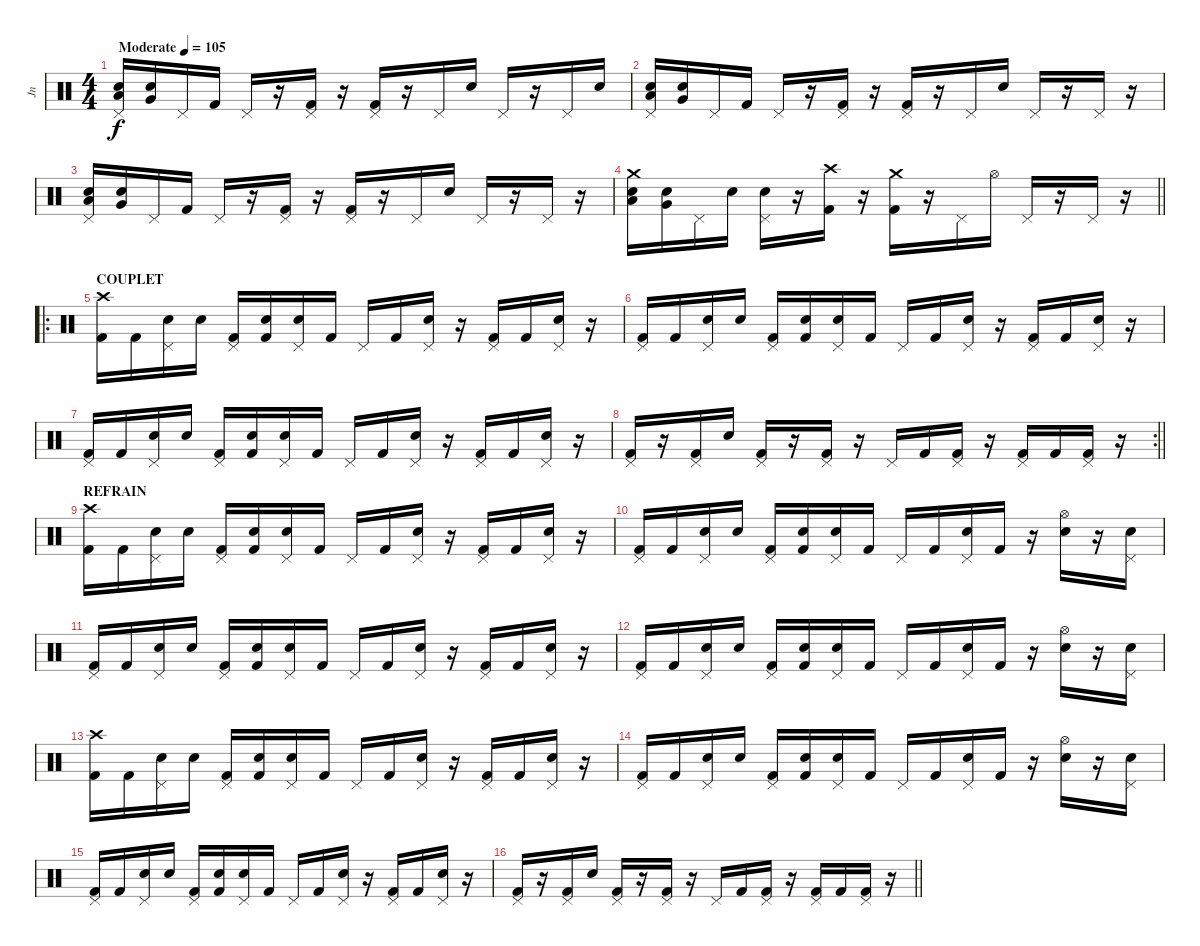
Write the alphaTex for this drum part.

\track ("Jn" "Jn") {instrument percussion}
\staff {score}
\articulation defaults
\ts (4 4)
\tempo (105 "Moderate")
\clef neutral
\ks c
("Pedal Hi-Hat (hit)" "Low Tom (hit)" "Electric Snare (hit)").16{dy f} ("Very Low Tom (hit)" "Electric Snare (hit)").16 "Pedal Hi-Hat (hit)".16 "Kick (hit) 2".16 "Pedal Hi-Hat (hit)".16 r.16 ("Pedal Hi-Hat (hit)" "Kick (hit) 2").16 r.16 ("Pedal Hi-Hat (hit)" "Kick (hit) 2").16 r.16 "Pedal Hi-Hat (hit)".16 "Electric Snare (hit)".16 "Pedal Hi-Hat (hit)".16 r.16 "Pedal Hi-Hat (hit)".16 "Electric Snare (hit)".16 |
("Pedal Hi-Hat (hit)" "Low Tom (hit)" "Electric Snare (hit)").16 ("Very Low Tom (hit)" "Electric Snare (hit)").16 "Pedal Hi-Hat (hit)".16 "Kick (hit) 2".16 "Pedal Hi-Hat (hit)".16 r.16 ("Pedal Hi-Hat (hit)" "Kick (hit) 2").16 r.16 ("Pedal Hi-Hat (hit)" "Kick (hit) 2").16 r.16 "Pedal Hi-Hat (hit)".16 "Electric Snare (hit)".16 "Pedal Hi-Hat (hit)".16 r.16 "Pedal Hi-Hat (hit)".16 r.16 |
("Pedal Hi-Hat (hit)" "Low Tom (hit)" "Electric Snare (hit)").16 ("Very Low Tom (hit)" "Electric Snare (hit)").16 "Pedal Hi-Hat (hit)".16 "Kick (hit) 2".16 "Pedal Hi-Hat (hit)".16 r.16 ("Pedal Hi-Hat (hit)" "Kick (hit) 2").16 r.16 ("Pedal Hi-Hat (hit)" "Kick (hit) 2").16 r.16 "Pedal Hi-Hat (hit)".16 "Electric Snare (hit)".16 "Pedal Hi-Hat (hit)".16 r.16 "Pedal Hi-Hat (hit)".16 r.16 |
\barLineRight lightlight
("Crash medium (hit)" "Low Tom (hit)" "Electric Snare (hit)").16 ("Very Low Tom (hit)" "Electric Snare (hit)").16 "Pedal Hi-Hat (hit)".16 "Electric Snare (hit)".16 ("Pedal Hi-Hat (hit)" "Electric Snare (hit)").16 r.16 ("Crash high (hit)" "Kick (hit) 2").16 r.16 ("Crash medium (hit)" "Kick (hit) 2").16 r.16 "Pedal Hi-Hat (hit)".16 "Hi-Hat (open)".16 "Pedal Hi-Hat (hit)".16 r.16 "Pedal Hi-Hat (hit)".16 r.16 |
\ro
\section ("" "COUPLET")
("Crash high (hit)" "Kick (hit) 2").16 "Kick (hit) 2".16 ("Pedal Hi-Hat (hit)" "Electric Snare (hit)").16 "Snare (hit)".16 ("Pedal Hi-Hat (hit)" "Kick (hit) 2").16 ("Snare (hit)" "Kick (hit) 2").16 ("Pedal Hi-Hat (hit)" "Electric Snare (hit)").16 "Kick (hit) 2".16 "Pedal Hi-Hat (hit)".16 "Kick (hit) 2".16 ("Pedal Hi-Hat (hit)" "Electric Snare (hit)").16 r.16 ("Pedal Hi-Hat (hit)" "Kick (hit) 2").16 "Kick (hit) 2".16 ("Pedal Hi-Hat (hit)" "Electric Snare (hit)").16 r.16 |
("Pedal Hi-Hat (hit)" "Kick (hit) 2").16 "Kick (hit) 2".16 ("Pedal Hi-Hat (hit)" "Electric Snare (hit)").16 "Snare (hit)".16 ("Pedal Hi-Hat (hit)" "Kick (hit) 2").16 ("Snare (hit)" "Kick (hit) 2").16 ("Pedal Hi-Hat (hit)" "Electric Snare (hit)").16 "Kick (hit) 2".16 "Pedal Hi-Hat (hit)".16 "Kick (hit) 2".16 ("Pedal Hi-Hat (hit)" "Electric Snare (hit)").16 r.16 ("Pedal Hi-Hat (hit)" "Kick (hit) 2").16 "Kick (hit) 2".16 ("Pedal Hi-Hat (hit)" "Electric Snare (hit)").16 r.16 |
("Pedal Hi-Hat (hit)" "Kick (hit) 2").16 "Kick (hit) 2".16 ("Pedal Hi-Hat (hit)" "Electric Snare (hit)").16 "Snare (hit)".16 ("Pedal Hi-Hat (hit)" "Kick (hit) 2").16 ("Snare (hit)" "Kick (hit) 2").16 ("Pedal Hi-Hat (hit)" "Electric Snare (hit)").16 "Kick (hit) 2".16 "Pedal Hi-Hat (hit)".16 "Kick (hit) 2".16 ("Pedal Hi-Hat (hit)" "Electric Snare (hit)").16 r.16 ("Pedal Hi-Hat (hit)" "Kick (hit) 2").16 "Kick (hit) 2".16 ("Pedal Hi-Hat (hit)" "Electric Snare (hit)").16 r.16 |
\rc 2
\barLineRight lightlight
("Pedal Hi-Hat (hit)" "Kick (hit) 2").16 r.16 ("Pedal Hi-Hat (hit)" "Kick (hit) 2").16 "Snare (hit)".16 ("Pedal Hi-Hat (hit)" "Kick (hit) 2").16 r.16 ("Pedal Hi-Hat (hit)" "Kick (hit) 2").16 r.16 "Pedal Hi-Hat (hit)".16 "Kick (hit) 2".16 ("Pedal Hi-Hat (hit)" "Kick (hit) 2").16 r.16 ("Pedal Hi-Hat (hit)" "Kick (hit) 2").16 "Kick (hit) 2".16 ("Pedal Hi-Hat (hit)" "Kick (hit) 2").16 r.16 |
\section ("" "REFRAIN")
("Crash high (hit)" "Kick (hit) 2").16 "Kick (hit) 2".16 ("Pedal Hi-Hat (hit)" "Electric Snare (hit)").16 "Snare (hit)".16 ("Pedal Hi-Hat (hit)" "Kick (hit) 2").16 ("Snare (hit)" "Kick (hit) 2").16 ("Pedal Hi-Hat (hit)" "Electric Snare (hit)").16 "Kick (hit) 2".16 "Pedal Hi-Hat (hit)".16 "Kick (hit) 2".16 ("Pedal Hi-Hat (hit)" "Electric Snare (hit)").16 r.16 ("Pedal Hi-Hat (hit)" "Kick (hit) 2").16 "Kick (hit) 2".16 ("Pedal Hi-Hat (hit)" "Electric Snare (hit)").16 r.16 |
("Pedal Hi-Hat (hit)" "Kick (hit) 2").16 "Kick (hit) 2".16 ("Pedal Hi-Hat (hit)" "Electric Snare (hit)").16 "Snare (hit)".16 ("Pedal Hi-Hat (hit)" "Kick (hit) 2").16 ("Snare (hit)" "Kick (hit) 2").16 ("Pedal Hi-Hat (hit)" "Electric Snare (hit)").16 "Kick (hit) 2".16 "Pedal Hi-Hat (hit)".16 "Kick (hit) 2".16 ("Pedal Hi-Hat (hit)" "Electric Snare (hit)").16 "Kick (hit) 2".16 r.16 ("Hi-Hat (open)" "Electric Snare (hit)").16 r.16 ("Pedal Hi-Hat (hit)" "Electric Snare (hit)").16 |
("Pedal Hi-Hat (hit)" "Kick (hit) 2").16 "Kick (hit) 2".16 ("Pedal Hi-Hat (hit)" "Electric Snare (hit)").16 "Snare (hit)".16 ("Pedal Hi-Hat (hit)" "Kick (hit) 2").16 ("Snare (hit)" "Kick (hit) 2").16 ("Pedal Hi-Hat (hit)" "Electric Snare (hit)").16 "Kick (hit) 2".16 "Pedal Hi-Hat (hit)".16 "Kick (hit) 2".16 ("Pedal Hi-Hat (hit)" "Electric Snare (hit)").16 r.16 ("Pedal Hi-Hat (hit)" "Kick (hit) 2").16 "Kick (hit) 2".16 ("Pedal Hi-Hat (hit)" "Electric Snare (hit)").16 r.16 |
("Pedal Hi-Hat (hit)" "Kick (hit) 2").16 "Kick (hit) 2".16 ("Pedal Hi-Hat (hit)" "Electric Snare (hit)").16 "Snare (hit)".16 ("Pedal Hi-Hat (hit)" "Kick (hit) 2").16 ("Snare (hit)" "Kick (hit) 2").16 ("Pedal Hi-Hat (hit)" "Electric Snare (hit)").16 "Kick (hit) 2".16 "Pedal Hi-Hat (hit)".16 "Kick (hit) 2".16 ("Pedal Hi-Hat (hit)" "Electric Snare (hit)").16 "Kick (hit) 2".16 r.16 ("Hi-Hat (open)" "Electric Snare (hit)").16 r.16 ("Pedal Hi-Hat (hit)" "Electric Snare (hit)").16 |
("Crash high (hit)" "Kick (hit) 2").16 "Kick (hit) 2".16 ("Pedal Hi-Hat (hit)" "Electric Snare (hit)").16 "Snare (hit)".16 ("Pedal Hi-Hat (hit)" "Kick (hit) 2").16 ("Snare (hit)" "Kick (hit) 2").16 ("Pedal Hi-Hat (hit)" "Electric Snare (hit)").16 "Kick (hit) 2".16 "Pedal Hi-Hat (hit)".16 "Kick (hit) 2".16 ("Pedal Hi-Hat (hit)" "Electric Snare (hit)").16 r.16 ("Pedal Hi-Hat (hit)" "Kick (hit) 2").16 "Kick (hit) 2".16 ("Pedal Hi-Hat (hit)" "Electric Snare (hit)").16 r.16 |
("Pedal Hi-Hat (hit)" "Kick (hit) 2").16 "Kick (hit) 2".16 ("Pedal Hi-Hat (hit)" "Electric Snare (hit)").16 "Snare (hit)".16 ("Pedal Hi-Hat (hit)" "Kick (hit) 2").16 ("Snare (hit)" "Kick (hit) 2").16 ("Pedal Hi-Hat (hit)" "Electric Snare (hit)").16 "Kick (hit) 2".16 "Pedal Hi-Hat (hit)".16 "Kick (hit) 2".16 ("Pedal Hi-Hat (hit)" "Electric Snare (hit)").16 "Kick (hit) 2".16 r.16 ("Hi-Hat (open)" "Electric Snare (hit)").16 r.16 ("Pedal Hi-Hat (hit)" "Electric Snare (hit)").16 |
("Pedal Hi-Hat (hit)" "Kick (hit) 2").16 "Kick (hit) 2".16 ("Pedal Hi-Hat (hit)" "Electric Snare (hit)").16 "Snare (hit)".16 ("Pedal Hi-Hat (hit)" "Kick (hit) 2").16 ("Snare (hit)" "Kick (hit) 2").16 ("Pedal Hi-Hat (hit)" "Electric Snare (hit)").16 "Kick (hit) 2".16 "Pedal Hi-Hat (hit)".16 "Kick (hit) 2".16 ("Pedal Hi-Hat (hit)" "Electric Snare (hit)").16 r.16 ("Pedal Hi-Hat (hit)" "Kick (hit) 2").16 "Kick (hit) 2".16 ("Pedal Hi-Hat (hit)" "Electric Snare (hit)").16 r.16 |
\barLineRight lightlight
("Pedal Hi-Hat (hit)" "Kick (hit) 2").16 r.16 ("Pedal Hi-Hat (hit)" "Kick (hit) 2").16 "Snare (hit)".16 ("Pedal Hi-Hat (hit)" "Kick (hit) 2").16 r.16 ("Pedal Hi-Hat (hit)" "Kick (hit) 2").16 r.16 "Pedal Hi-Hat (hit)".16 "Kick (hit) 2".16 ("Pedal Hi-Hat (hit)" "Kick (hit) 2").16 r.16 ("Pedal Hi-Hat (hit)" "Kick (hit) 2").16 "Kick (hit) 2".16 ("Pedal Hi-Hat (hit)" "Kick (hit) 2").16 r.16
